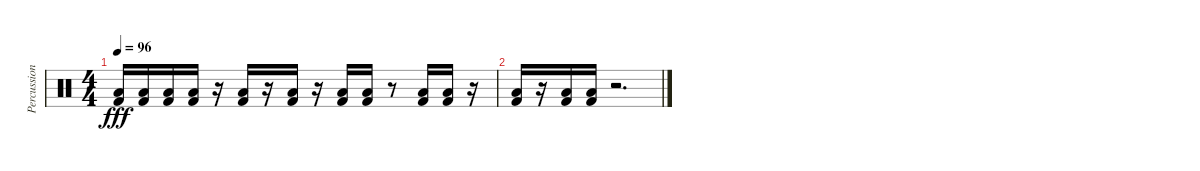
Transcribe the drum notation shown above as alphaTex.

\track ("Percussion" "Percussion") {instrument percussion}
\staff {score}
\articulation defaults
\ts (4 4)
\tempo 96
\clef neutral
\ks c
("Low Floor Tom (hit)" "Kick (hit) 2").16{dy fff} ("Low Floor Tom (hit)" "Kick (hit) 2").16 ("Low Floor Tom (hit)" "Kick (hit) 2").16 ("Low Floor Tom (hit)" "Kick (hit) 2").16 r.16 ("Low Floor Tom (hit)" "Kick (hit) 2").16 r.16 ("Low Floor Tom (hit)" "Kick (hit) 2").16 r.16 ("Low Floor Tom (hit)" "Kick (hit) 2").16 ("Low Floor Tom (hit)" "Kick (hit) 2").16 r.8 ("Low Floor Tom (hit)" "Kick (hit) 2").16 ("Low Floor Tom (hit)" "Kick (hit) 2").16 r.16 |
("Low Floor Tom (hit)" "Kick (hit) 2").16 r.16 ("Low Floor Tom (hit)" "Kick (hit) 2").16 ("Low Floor Tom (hit)" "Kick (hit) 2").16 r.2{d}
